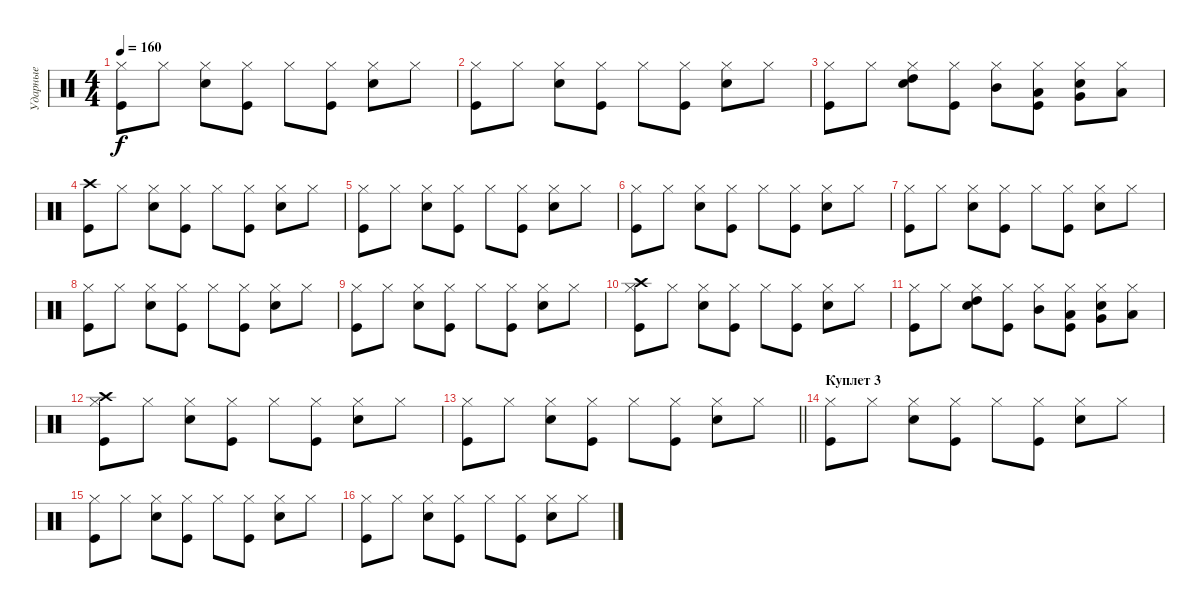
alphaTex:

\track ("Ударные" "Ударные") {instrument percussion}
\staff {score}
\articulation defaults
\ts (4 4)
\tempo 160
\clef neutral
\ks c
("Kick (hit)" "Hi-Hat (closed)").8{dy f} "Hi-Hat (closed)".8 ("Snare (hit) 2" "Hi-Hat (closed)").8 ("Kick (hit)" "Hi-Hat (closed)").8 "Hi-Hat (closed)".8 ("Kick (hit)" "Hi-Hat (closed)").8 ("Snare (hit) 2" "Hi-Hat (closed)").8 "Hi-Hat (closed)".8 |
("Kick (hit)" "Hi-Hat (closed)").8 "Hi-Hat (closed)".8 ("Snare (hit) 2" "Hi-Hat (closed)").8 ("Kick (hit)" "Hi-Hat (closed)").8 "Hi-Hat (closed)".8 ("Kick (hit)" "Hi-Hat (closed)").8 ("Snare (hit) 2" "Hi-Hat (closed)").8 "Hi-Hat (closed)".8 |
("Kick (hit)" "Hi-Hat (closed)").8 "Hi-Hat (closed)".8 ("Snare (hit) 2" "High Tom (hit)" "Hi-Hat (closed)").8 ("Kick (hit)" "Hi-Hat (closed)").8 ("Mid Tom (hit)" "Hi-Hat (closed)").8 ("Kick (hit)" "Low Tom (hit)" "Hi-Hat (closed)").8 ("Snare (hit) 2" "Very Low Tom (hit)" "Hi-Hat (closed)").8 ("Low Floor Tom (hit)" "Hi-Hat (closed)").8 |
("Kick (hit)" "Crash high (hit)").8 "Hi-Hat (closed)".8 ("Snare (hit) 2" "Hi-Hat (closed)").8 ("Kick (hit)" "Hi-Hat (closed)").8 "Hi-Hat (closed)".8 ("Kick (hit)" "Hi-Hat (closed)").8 ("Snare (hit) 2" "Hi-Hat (closed)").8 "Hi-Hat (closed)".8 |
("Kick (hit)" "Hi-Hat (closed)").8 "Hi-Hat (closed)".8 ("Snare (hit) 2" "Hi-Hat (closed)").8 ("Kick (hit)" "Hi-Hat (closed)").8 "Hi-Hat (closed)".8 ("Kick (hit)" "Hi-Hat (closed)").8 ("Snare (hit) 2" "Hi-Hat (closed)").8 "Hi-Hat (closed)".8 |
("Kick (hit)" "Hi-Hat (closed)").8 "Hi-Hat (closed)".8 ("Snare (hit) 2" "Hi-Hat (closed)").8 ("Kick (hit)" "Hi-Hat (closed)").8 "Hi-Hat (closed)".8 ("Kick (hit)" "Hi-Hat (closed)").8 ("Snare (hit) 2" "Hi-Hat (closed)").8 "Hi-Hat (closed)".8 |
("Kick (hit)" "Hi-Hat (closed)").8 "Hi-Hat (closed)".8 ("Snare (hit) 2" "Hi-Hat (closed)").8 ("Kick (hit)" "Hi-Hat (closed)").8 "Hi-Hat (closed)".8 ("Kick (hit)" "Hi-Hat (closed)").8 ("Snare (hit) 2" "Hi-Hat (closed)").8 "Hi-Hat (closed)".8 |
("Kick (hit)" "Hi-Hat (closed)").8 "Hi-Hat (closed)".8 ("Snare (hit) 2" "Hi-Hat (closed)").8 ("Kick (hit)" "Hi-Hat (closed)").8 "Hi-Hat (closed)".8 ("Kick (hit)" "Hi-Hat (closed)").8 ("Snare (hit) 2" "Hi-Hat (closed)").8 "Hi-Hat (closed)".8 |
("Kick (hit)" "Hi-Hat (closed)").8 "Hi-Hat (closed)".8 ("Snare (hit) 2" "Hi-Hat (closed)").8 ("Kick (hit)" "Hi-Hat (closed)").8 "Hi-Hat (closed)".8 ("Kick (hit)" "Hi-Hat (closed)").8 ("Snare (hit) 2" "Hi-Hat (closed)").8 "Hi-Hat (closed)".8 |
("Kick (hit)" "Crash high (hit)" "Hi-Hat (closed)").8 "Hi-Hat (closed)".8 ("Snare (hit) 2" "Hi-Hat (closed)").8 ("Kick (hit)" "Hi-Hat (closed)").8 "Hi-Hat (closed)".8 ("Kick (hit)" "Hi-Hat (closed)").8 ("Snare (hit) 2" "Hi-Hat (closed)").8 "Hi-Hat (closed)".8 |
("Kick (hit)" "Hi-Hat (closed)").8 "Hi-Hat (closed)".8 ("Snare (hit) 2" "High Tom (hit)" "Hi-Hat (closed)").8 ("Kick (hit)" "Hi-Hat (closed)").8 ("Mid Tom (hit)" "Hi-Hat (closed)").8 ("Kick (hit)" "Low Tom (hit)" "Hi-Hat (closed)").8 ("Snare (hit) 2" "Very Low Tom (hit)" "Hi-Hat (closed)").8 ("Low Floor Tom (hit)" "Hi-Hat (closed)").8 |
("Kick (hit)" "Crash high (hit)" "Hi-Hat (closed)").8 "Hi-Hat (closed)".8 ("Snare (hit) 2" "Hi-Hat (closed)").8 ("Kick (hit)" "Hi-Hat (closed)").8 "Hi-Hat (closed)".8 ("Kick (hit)" "Hi-Hat (closed)").8 ("Snare (hit) 2" "Hi-Hat (closed)").8 "Hi-Hat (closed)".8 |
\barLineRight lightlight
("Kick (hit)" "Hi-Hat (closed)").8 "Hi-Hat (closed)".8 ("Snare (hit) 2" "Hi-Hat (closed)").8 ("Kick (hit)" "Hi-Hat (closed)").8 "Hi-Hat (closed)".8 ("Kick (hit)" "Hi-Hat (closed)").8 ("Snare (hit) 2" "Hi-Hat (closed)").8 "Hi-Hat (closed)".8 |
\section ("" "Куплет 3")
("Kick (hit)" "Hi-Hat (closed)").8 "Hi-Hat (closed)".8 ("Snare (hit) 2" "Hi-Hat (closed)").8 ("Kick (hit)" "Hi-Hat (closed)").8 "Hi-Hat (closed)".8 ("Kick (hit)" "Hi-Hat (closed)").8 ("Snare (hit) 2" "Hi-Hat (closed)").8 "Hi-Hat (closed)".8 |
("Kick (hit)" "Hi-Hat (closed)").8 "Hi-Hat (closed)".8 ("Snare (hit) 2" "Hi-Hat (closed)").8 ("Kick (hit)" "Hi-Hat (closed)").8 "Hi-Hat (closed)".8 ("Kick (hit)" "Hi-Hat (closed)").8 ("Snare (hit) 2" "Hi-Hat (closed)").8 "Hi-Hat (closed)".8 |
("Kick (hit)" "Hi-Hat (closed)").8 "Hi-Hat (closed)".8 ("Snare (hit) 2" "Hi-Hat (closed)").8 ("Kick (hit)" "Hi-Hat (closed)").8 "Hi-Hat (closed)".8 ("Kick (hit)" "Hi-Hat (closed)").8 ("Snare (hit) 2" "Hi-Hat (closed)").8 "Hi-Hat (closed)".8
